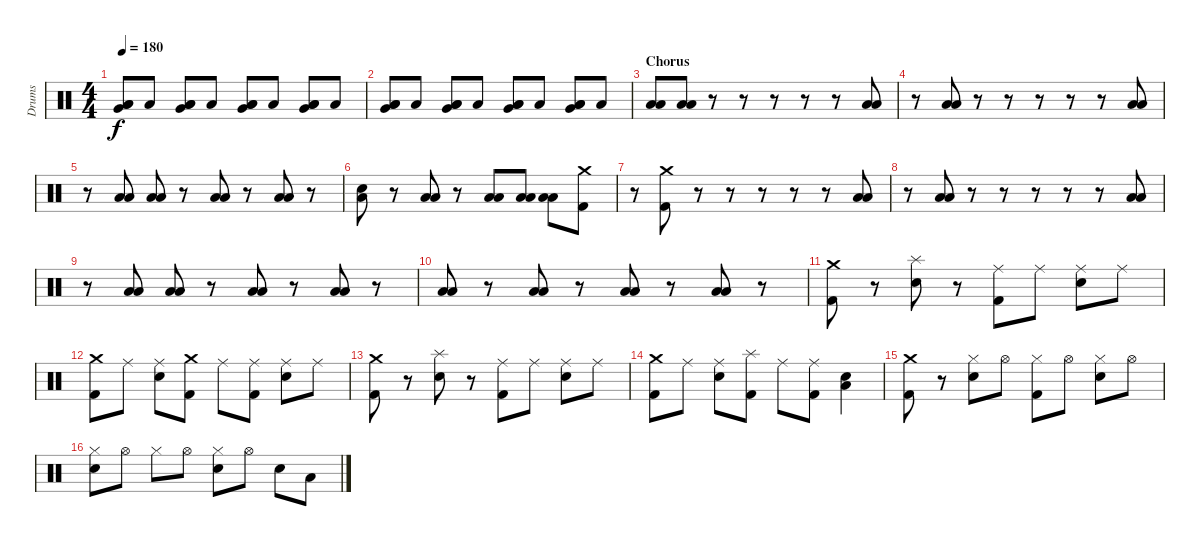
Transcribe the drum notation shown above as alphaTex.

\track ("Drums" "Drums") {instrument percussion}
\staff {score}
\articulation defaults
\ts (4 4)
\tempo 180
\clef neutral
\ks c
("Low Floor Tom (hit)" "Low Tom (hit)" "Very Low Tom (hit)").8{dy f} "Low Floor Tom (hit)".8 ("Low Floor Tom (hit)" "Low Tom (hit)" "Very Low Tom (hit)").8 "Low Floor Tom (hit)".8 ("Low Floor Tom (hit)" "Low Tom (hit)" "Very Low Tom (hit)").8 "Low Floor Tom (hit)".8 ("Low Floor Tom (hit)" "Low Tom (hit)" "Very Low Tom (hit)").8 "Low Floor Tom (hit)".8 |
("Low Floor Tom (hit)" "Low Tom (hit)" "Very Low Tom (hit)").8 "Low Floor Tom (hit)".8 ("Low Floor Tom (hit)" "Low Tom (hit)" "Very Low Tom (hit)").8 "Low Floor Tom (hit)".8 ("Low Floor Tom (hit)" "Low Tom (hit)" "Very Low Tom (hit)").8 "Low Floor Tom (hit)".8 ("Low Floor Tom (hit)" "Low Tom (hit)" "Very Low Tom (hit)").8 "Low Floor Tom (hit)".8 |
\section ("" "Chorus")
("Low Floor Tom (hit)" "Low Tom (hit)").8 ("Low Floor Tom (hit)" "Low Tom (hit)").8 r.8 r.8 r.8 r.8 r.8 ("Low Floor Tom (hit)" "Low Tom (hit)").8 |
r.8 ("Low Floor Tom (hit)" "Low Tom (hit)").8 r.8 r.8 r.8 r.8 r.8 ("Low Floor Tom (hit)" "Low Tom (hit)").8 |
r.8 ("Low Floor Tom (hit)" "Low Tom (hit)").8 ("Low Floor Tom (hit)" "Low Tom (hit)").8 r.8 ("Low Floor Tom (hit)" "Low Tom (hit)").8 r.8 ("Low Floor Tom (hit)" "Low Tom (hit)").8 r.8 |
("Low Floor Tom (hit)" "Electric Snare (hit)").8 r.8 ("Low Floor Tom (hit)" "Low Tom (hit)").8 r.8 ("Low Floor Tom (hit)" "Low Tom (hit)").8 ("Low Floor Tom (hit)" "Low Tom (hit)").8 ("Low Floor Tom (hit)" "Low Tom (hit)").8 ("Kick (hit) 2" "Crash medium (hit)").8 |
r.8 ("Kick (hit) 2" "Crash medium (hit)").8 r.8 r.8 r.8 r.8 r.8 ("Low Floor Tom (hit)" "Low Tom (hit)").8 |
r.8 ("Low Floor Tom (hit)" "Low Tom (hit)").8 r.8 r.8 r.8 r.8 r.8 ("Low Floor Tom (hit)" "Low Tom (hit)").8 |
r.8 ("Low Floor Tom (hit)" "Low Tom (hit)").8 ("Low Floor Tom (hit)" "Low Tom (hit)").8 r.8 ("Low Floor Tom (hit)" "Low Tom (hit)").8 r.8 ("Low Floor Tom (hit)" "Low Tom (hit)").8 r.8 |
("Low Floor Tom (hit)" "Low Tom (hit)").8 r.8 ("Low Floor Tom (hit)" "Low Tom (hit)").8 r.8 ("Low Floor Tom (hit)" "Low Tom (hit)").8 r.8 ("Low Floor Tom (hit)" "Low Tom (hit)").8 r.8 |
("Kick (hit) 2" "Crash medium (hit)").8 r.8 ("Electric Snare (hit)" "Splash (hit)").8 r.8 ("Ride (middle)" "Kick (hit) 2").8 "Ride (middle)".8 ("Ride (middle)" "Electric Snare (hit)").8 "Ride (middle)".8 |
("Kick (hit) 2" "Crash medium (hit)").8 "Ride (middle)".8 ("Ride (middle)" "Electric Snare (hit)").8 ("Kick (hit) 2" "Crash medium (hit)").8 "Ride (middle)".8 ("Ride (middle)" "Kick (hit) 2").8 ("Ride (middle)" "Electric Snare (hit)").8 "Ride (middle)".8 |
("Kick (hit) 2" "Crash medium (hit)").8 r.8 ("Electric Snare (hit)" "Splash (hit)").8 r.8 ("Ride (middle)" "Kick (hit) 2").8 "Ride (middle)".8 ("Ride (middle)" "Electric Snare (hit)").8 "Ride (middle)".8 |
("Kick (hit) 2" "Crash medium (hit)").8 "Ride (middle)".8 ("Ride (middle)" "Electric Snare (hit)").8 ("Kick (hit) 2" "Splash (hit)").8 "Ride (middle)".8 ("Ride (middle)" "Kick (hit) 2").8 ("Low Tom (hit)" "Electric Snare (hit)").4 |
("Kick (hit) 2" "Crash medium (hit)").8 r.8 ("Hi-Hat (closed)" "Electric Snare (hit)").8 "Hi-Hat (open)".8 ("Hi-Hat (closed)" "Kick (hit) 2").8 "Hi-Hat (open)".8 ("Hi-Hat (closed)" "Electric Snare (hit)").8 "Hi-Hat (open)".8 |
("Hi-Hat (closed)" "Electric Snare (hit)").8 "Hi-Hat (open)".8 "Hi-Hat (closed)".8 "Hi-Hat (open)".8 ("Hi-Hat (closed)" "Electric Snare (hit)").8 "Hi-Hat (open)".8 "Electric Snare (hit)".8 "Low Floor Tom (hit)".8
